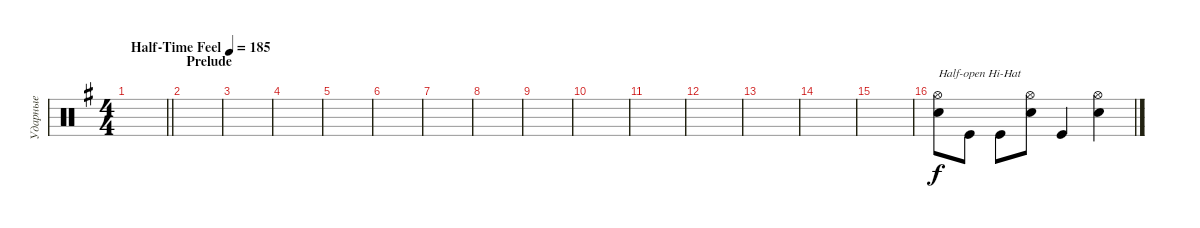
\track ("Ударные" "Ударные") {instrument percussion}
\staff {score}
\articulation defaults
\ts (4 4)
\tempo (185 "Half-Time Feel")
\clef neutral
\barLineRight lightlight
\ks eminor
|
\section ("" "Prelude")
|
|
|
|
|
|
|
|
|
|
|
|
|
|
("Snare (hit) 2" "Hi-Hat (open)").8{txt "Half-open Hi-Hat"} "Kick (hit)".8 "Kick (hit)".8 ("Snare (hit) 2" "Hi-Hat (open)").8 "Kick (hit)".4 ("Snare (hit) 2" "Hi-Hat (open)").4
